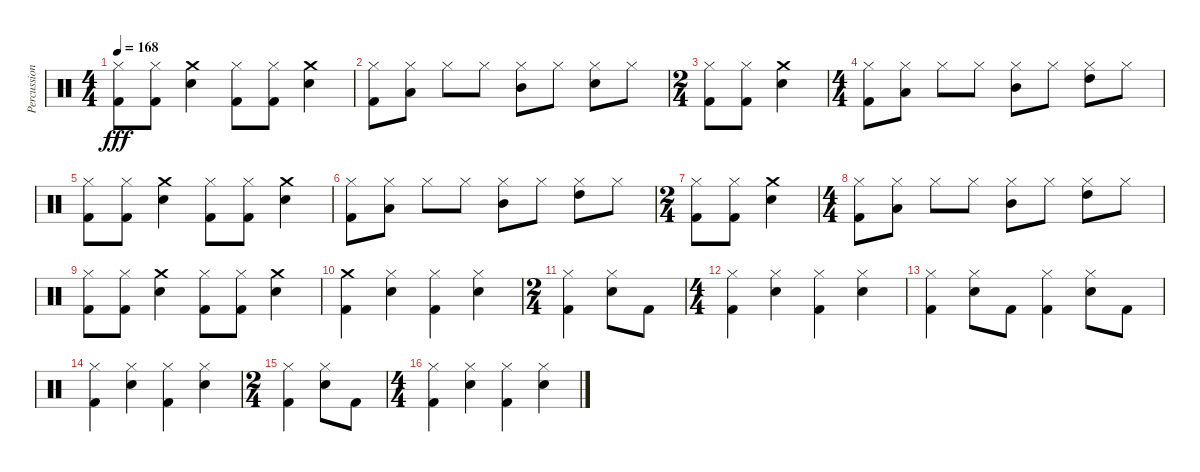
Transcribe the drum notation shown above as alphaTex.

\track ("Percussion" "Percussion") {instrument percussion}
\staff {score}
\articulation defaults
\ts (4 4)
\tempo 168
\clef neutral
\ks c
("Hi-Hat (closed)" "Kick (hit) 2").8{dy fff} ("Hi-Hat (closed)" "Kick (hit) 2").8 ("Snare (hit) 2" "Crash medium (hit)").4 ("Kick (hit) 2" "Hi-Hat (closed)").8 ("Kick (hit) 2" "Hi-Hat (closed)").8 ("Crash medium (hit)" "Snare (hit) 2").4 |
("Hi-Hat (closed)" "Kick (hit) 2").8 ("Low Tom (hit)" "Hi-Hat (closed)").8 "Hi-Hat (closed)".8 "Hi-Hat (closed)".8 ("Mid Tom (hit)" "Hi-Hat (closed)").8 "Hi-Hat (closed)".8 ("Snare (hit) 2" "Hi-Hat (closed)").8 "Hi-Hat (closed)".8 |
\ts (2 4)
("Kick (hit) 2" "Hi-Hat (closed)").8 ("Kick (hit) 2" "Hi-Hat (closed)").8 ("Snare (hit) 2" "Crash medium (hit)").4 |
\ts (4 4)
("Hi-Hat (closed)" "Kick (hit) 2").8 ("Low Tom (hit)" "Hi-Hat (closed)").8 "Hi-Hat (closed)".8 "Hi-Hat (closed)".8 ("Mid Tom (hit)" "Hi-Hat (closed)").8 "Hi-Hat (closed)".8 ("Hi-Hat (closed)" "High Tom (hit)").8 "Hi-Hat (closed)".8 |
("Hi-Hat (closed)" "Kick (hit) 2").8 ("Hi-Hat (closed)" "Kick (hit) 2").8 ("Snare (hit) 2" "Crash medium (hit)").4 ("Kick (hit) 2" "Hi-Hat (closed)").8 ("Kick (hit) 2" "Hi-Hat (closed)").8 ("Crash medium (hit)" "Snare (hit) 2").4 |
("Hi-Hat (closed)" "Kick (hit) 2").8 ("Low Tom (hit)" "Hi-Hat (closed)").8 "Hi-Hat (closed)".8 "Hi-Hat (closed)".8 ("Mid Tom (hit)" "Hi-Hat (closed)").8 "Hi-Hat (closed)".8 ("Hi-Hat (closed)" "High Tom (hit)").8 "Hi-Hat (closed)".8 |
\ts (2 4)
("Hi-Hat (closed)" "Kick (hit) 2").8 ("Hi-Hat (closed)" "Kick (hit) 2").8 ("Crash medium (hit)" "Snare (hit) 2").4 |
\ts (4 4)
("Hi-Hat (closed)" "Kick (hit) 2").8 ("Low Tom (hit)" "Hi-Hat (closed)").8 "Hi-Hat (closed)".8 "Hi-Hat (closed)".8 ("Mid Tom (hit)" "Hi-Hat (closed)").8 "Hi-Hat (closed)".8 ("Hi-Hat (closed)" "High Tom (hit)").8 "Hi-Hat (closed)".8 |
("Hi-Hat (closed)" "Kick (hit) 2").8 ("Hi-Hat (closed)" "Kick (hit) 2").8 ("Snare (hit) 2" "Crash medium (hit)").4 ("Kick (hit) 2" "Hi-Hat (closed)").8 ("Kick (hit) 2" "Hi-Hat (closed)").8 ("Crash medium (hit)" "Snare (hit) 2").4 |
("Kick (hit) 2" "Crash medium (hit)").4 ("Hi-Hat (closed)" "Snare (hit) 2").4 ("Hi-Hat (closed)" "Kick (hit) 2").4 ("Snare (hit) 2" "Hi-Hat (closed)").4 |
\ts (2 4)
("Hi-Hat (closed)" "Kick (hit) 2").4 ("Snare (hit) 2" "Hi-Hat (closed)").8 "Kick (hit) 2".8 |
\ts (4 4)
("Kick (hit) 2" "Hi-Hat (closed)").4 ("Snare (hit) 2" "Hi-Hat (closed)").4 ("Kick (hit) 2" "Hi-Hat (closed)").4 ("Snare (hit) 2" "Hi-Hat (closed)").4 |
("Hi-Hat (closed)" "Kick (hit) 2").4 ("Snare (hit) 2" "Hi-Hat (closed)").8 "Kick (hit) 2".8 ("Kick (hit) 2" "Hi-Hat (closed)").4 ("Hi-Hat (closed)" "Snare (hit) 2").8 "Kick (hit) 2".8 |
("Hi-Hat (closed)" "Kick (hit) 2").4 ("Hi-Hat (closed)" "Snare (hit) 2").4 ("Hi-Hat (closed)" "Kick (hit) 2").4 ("Snare (hit) 2" "Hi-Hat (closed)").4 |
\ts (2 4)
("Hi-Hat (closed)" "Kick (hit) 2").4 ("Snare (hit) 2" "Hi-Hat (closed)").8 "Kick (hit) 2".8 |
\ts (4 4)
("Kick (hit) 2" "Hi-Hat (closed)").4 ("Snare (hit) 2" "Hi-Hat (closed)").4 ("Kick (hit) 2" "Hi-Hat (closed)").4 ("Snare (hit) 2" "Hi-Hat (closed)").4
